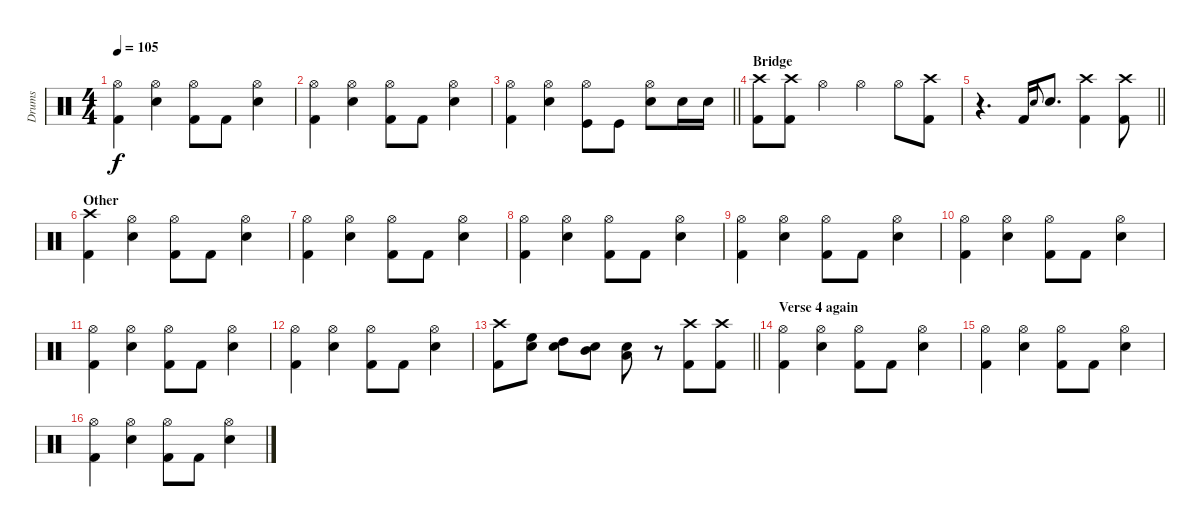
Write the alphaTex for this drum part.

\track ("Drums" "Drums") {instrument percussion}
\staff {score}
\articulation defaults
\ts (4 4)
\tempo 105
\clef neutral
\ks c
("Hi-Hat (open)" "Kick (hit) 2").4{dy f} ("Electric Snare (hit)" "Hi-Hat (open)").4 ("Hi-Hat (open)" "Kick (hit) 2").8 "Kick (hit) 2".8 ("Hi-Hat (open)" "Electric Snare (hit)").4 |
("Hi-Hat (open)" "Kick (hit) 2").4 ("Electric Snare (hit)" "Hi-Hat (open)").4 ("Hi-Hat (open)" "Kick (hit) 2").8 "Kick (hit) 2".8 ("Hi-Hat (open)" "Electric Snare (hit)").4 |
\barLineRight lightlight
("Hi-Hat (open)" "Kick (hit) 2").4 ("Electric Snare (hit)" "Hi-Hat (open)").4 ("Kick (hit)" "Hi-Hat (open)").8 "Kick (hit)".8 ("Electric Snare (hit)" "Hi-Hat (open)").8 "Electric Snare (hit)".16 "Electric Snare (hit)".16 |
\section ("" "Bridge")
("Crash high (hit)" "Kick (hit) 2").8 ("Crash high (hit)" "Kick (hit) 2").8 "Hi-Hat (open)".4 "Hi-Hat (open)".4 "Hi-Hat (open)".8 ("Crash high (hit)" "Kick (hit) 2").8 |
\barLineRight lightlight
r.4{d} "Kick (hit) 2".16 "Electric Snare (hit)".8{gr onbeat} "Electric Snare (hit)".8{d} ("Crash high (hit)" "Kick (hit) 2").4 ("Kick (hit) 2" "Crash high (hit)").8 |
\section ("" "Other")
("Crash high (hit)" "Kick (hit) 2").4 ("Electric Snare (hit)" "Hi-Hat (open)").4 ("Hi-Hat (open)" "Kick (hit) 2").8 "Kick (hit) 2".8 ("Hi-Hat (open)" "Electric Snare (hit)").4 |
("Hi-Hat (open)" "Kick (hit) 2").4 ("Electric Snare (hit)" "Hi-Hat (open)").4 ("Hi-Hat (open)" "Kick (hit) 2").8 "Kick (hit) 2".8 ("Hi-Hat (open)" "Electric Snare (hit)").4 |
("Hi-Hat (open)" "Kick (hit) 2").4 ("Electric Snare (hit)" "Hi-Hat (open)").4 ("Hi-Hat (open)" "Kick (hit) 2").8 "Kick (hit) 2".8 ("Hi-Hat (open)" "Electric Snare (hit)").4 |
("Hi-Hat (open)" "Kick (hit) 2").4 ("Electric Snare (hit)" "Hi-Hat (open)").4 ("Hi-Hat (open)" "Kick (hit) 2").8 "Kick (hit) 2".8 ("Hi-Hat (open)" "Electric Snare (hit)").4 |
("Hi-Hat (open)" "Kick (hit) 2").4 ("Electric Snare (hit)" "Hi-Hat (open)").4 ("Hi-Hat (open)" "Kick (hit) 2").8 "Kick (hit) 2".8 ("Hi-Hat (open)" "Electric Snare (hit)").4 |
("Hi-Hat (open)" "Kick (hit) 2").4 ("Electric Snare (hit)" "Hi-Hat (open)").4 ("Hi-Hat (open)" "Kick (hit) 2").8 "Kick (hit) 2".8 ("Hi-Hat (open)" "Electric Snare (hit)").4 |
("Hi-Hat (open)" "Kick (hit) 2").4 ("Electric Snare (hit)" "Hi-Hat (open)").4 ("Hi-Hat (open)" "Kick (hit) 2").8 "Kick (hit) 2".8 ("Hi-Hat (open)" "Electric Snare (hit)").4 |
\barLineRight lightlight
("Kick (hit) 2" "Crash high (hit)").8 ("Electric Snare (hit)" "High Floor Tom (hit)").8 ("Electric Snare (hit)" "High Tom (hit)").8 ("Electric Snare (hit)" "Mid Tom (hit)").8 ("Electric Snare (hit)" "Low Tom (hit)").8 r.8 ("Kick (hit) 2" "Crash high (hit)").8 ("Kick (hit) 2" "Crash high (hit)").8 |
\section ("" "Verse 4 again")
("Hi-Hat (open)" "Kick (hit) 2").4 ("Electric Snare (hit)" "Hi-Hat (open)").4 ("Hi-Hat (open)" "Kick (hit) 2").8 "Kick (hit) 2".8 ("Hi-Hat (open)" "Electric Snare (hit)").4 |
("Hi-Hat (open)" "Kick (hit) 2").4 ("Electric Snare (hit)" "Hi-Hat (open)").4 ("Hi-Hat (open)" "Kick (hit) 2").8 "Kick (hit) 2".8 ("Hi-Hat (open)" "Electric Snare (hit)").4 |
("Hi-Hat (open)" "Kick (hit) 2").4 ("Electric Snare (hit)" "Hi-Hat (open)").4 ("Hi-Hat (open)" "Kick (hit) 2").8 "Kick (hit) 2".8 ("Hi-Hat (open)" "Electric Snare (hit)").4
